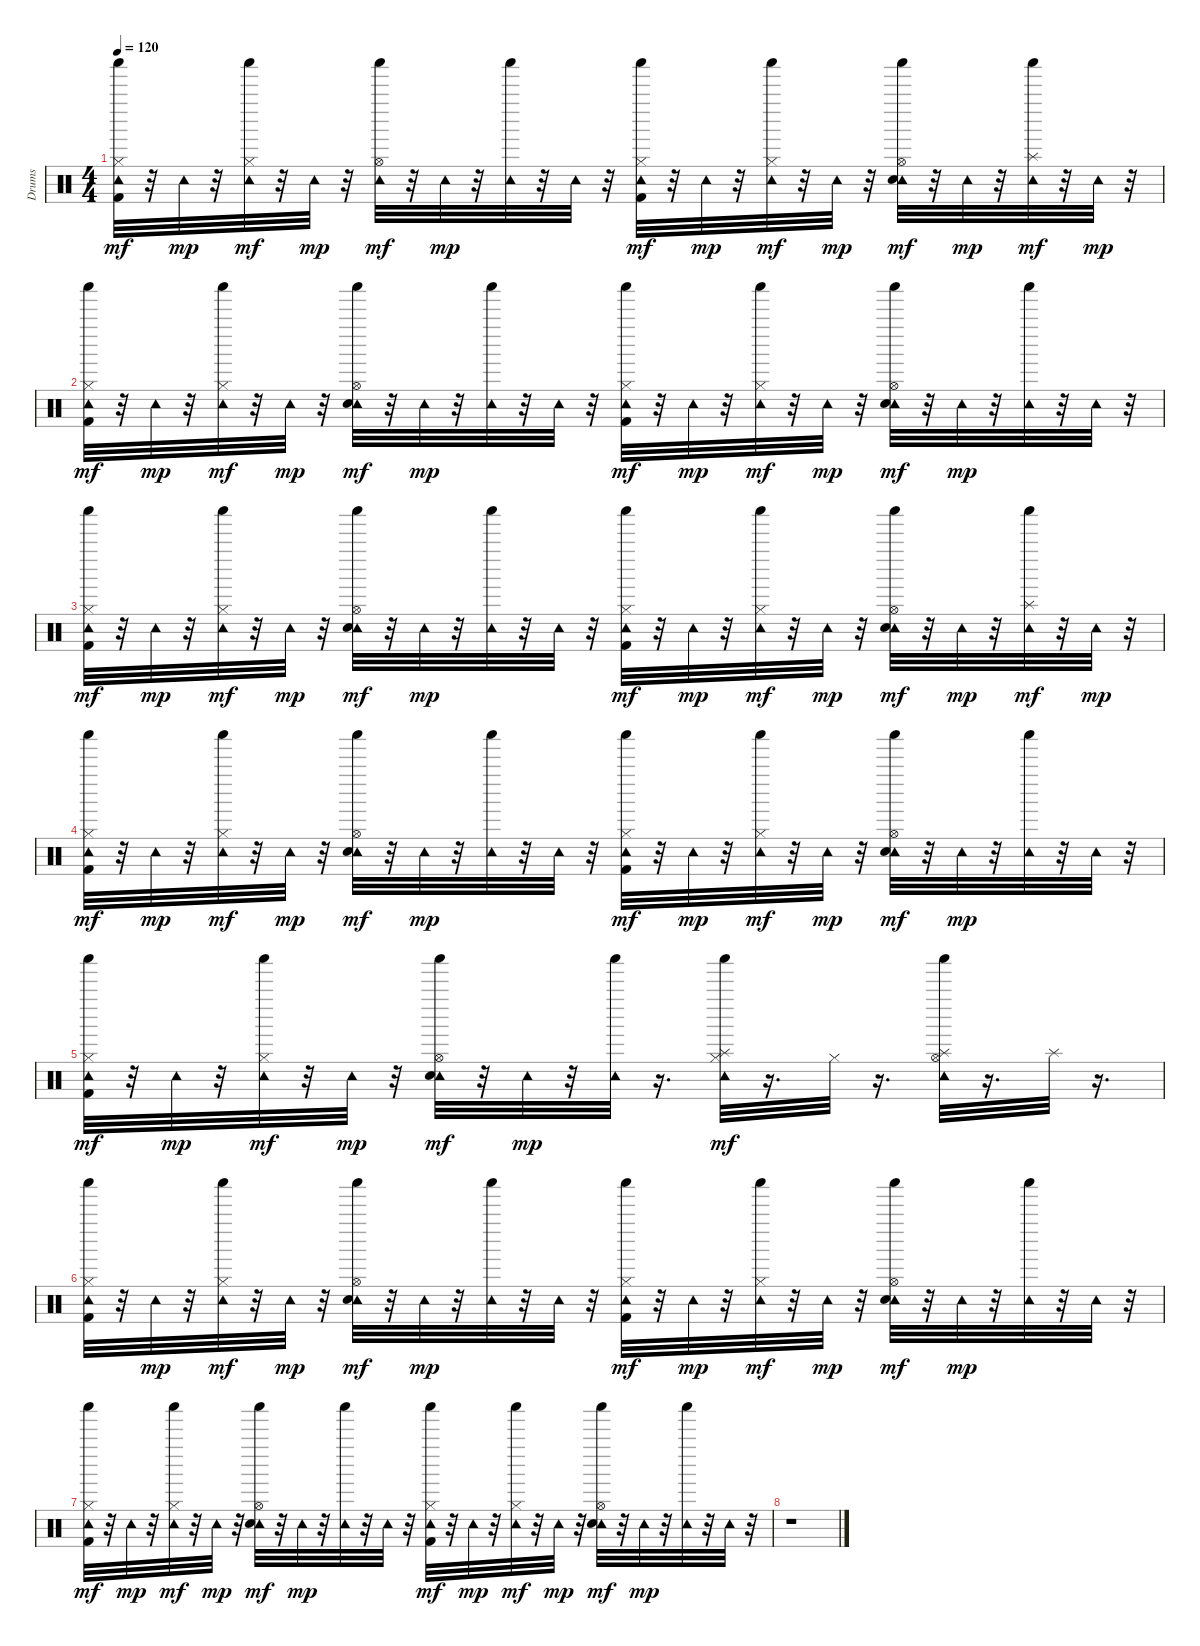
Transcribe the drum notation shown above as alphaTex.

\track ("Drums" "Drums") {instrument percussion}
\staff {score}
\articulation defaults
\ts (4 4)
\tempo 120
\clef neutral
\ks c
("Kick (hit) 2" "Tambourine (hit)" "Shaker (hit)" "Hi-Hat (closed)").32{dy mf} r.32 "Tambourine (hit)".32{dy mp} r.32 ("Tambourine (hit)" "Shaker (hit)" "Hi-Hat (closed)").32{dy mf} r.32 "Tambourine (hit)".32{dy mp} r.32 ("Tambourine (hit)" "Shaker (hit)" "Hi-Hat (open)").32{dy mf} r.32 "Tambourine (hit)".32{dy mp} r.32 ("Tambourine (hit)" "Shaker (hit)").32 r.32 "Tambourine (hit)".32 r.32 ("Kick (hit) 2" "Tambourine (hit)" "Shaker (hit)" "Hi-Hat (closed)").32{dy mf} r.32 "Tambourine (hit)".32{dy mp} r.32 ("Tambourine (hit)" "Shaker (hit)" "Hi-Hat (closed)").32{dy mf} r.32 "Tambourine (hit)".32{dy mp} r.32 ("Tambourine (hit)" "Shaker (hit)" "Snare (hit) 2" "Hi-Hat (open)").32{dy mf} r.32 "Tambourine (hit)".32{dy mp} r.32 ("Tambourine (hit)" "Shaker (hit)" "Splash (hit)").32{dy mf} r.32 "Tambourine (hit)".32{dy mp} r.32 |
("Kick (hit) 2" "Tambourine (hit)" "Shaker (hit)" "Hi-Hat (closed)").32{dy mf} r.32 "Tambourine (hit)".32{dy mp} r.32 ("Tambourine (hit)" "Shaker (hit)" "Hi-Hat (closed)").32{dy mf} r.32 "Tambourine (hit)".32{dy mp} r.32 ("Tambourine (hit)" "Shaker (hit)" "Snare (hit) 2" "Hi-Hat (open)").32{dy mf} r.32 "Tambourine (hit)".32{dy mp} r.32 ("Tambourine (hit)" "Shaker (hit)").32 r.32 "Tambourine (hit)".32 r.32 ("Kick (hit) 2" "Tambourine (hit)" "Shaker (hit)" "Hi-Hat (closed)").32{dy mf} r.32 "Tambourine (hit)".32{dy mp} r.32 ("Tambourine (hit)" "Shaker (hit)" "Hi-Hat (closed)").32{dy mf} r.32 "Tambourine (hit)".32{dy mp} r.32 ("Tambourine (hit)" "Shaker (hit)" "Snare (hit) 2" "Hi-Hat (open)").32{dy mf} r.32 "Tambourine (hit)".32{dy mp} r.32 ("Tambourine (hit)" "Shaker (hit)").32 r.32 "Tambourine (hit)".32 r.32 |
("Kick (hit) 2" "Tambourine (hit)" "Shaker (hit)" "Hi-Hat (closed)").32{dy mf} r.32 "Tambourine (hit)".32{dy mp} r.32 ("Tambourine (hit)" "Shaker (hit)" "Hi-Hat (closed)").32{dy mf} r.32 "Tambourine (hit)".32{dy mp} r.32 ("Tambourine (hit)" "Shaker (hit)" "Snare (hit) 2" "Hi-Hat (open)").32{dy mf} r.32 "Tambourine (hit)".32{dy mp} r.32 ("Tambourine (hit)" "Shaker (hit)").32 r.32 "Tambourine (hit)".32 r.32 ("Kick (hit) 2" "Tambourine (hit)" "Shaker (hit)" "Hi-Hat (closed)").32{dy mf} r.32 "Tambourine (hit)".32{dy mp} r.32 ("Tambourine (hit)" "Shaker (hit)" "Hi-Hat (closed)").32{dy mf} r.32 "Tambourine (hit)".32{dy mp} r.32 ("Tambourine (hit)" "Shaker (hit)" "Snare (hit) 2" "Hi-Hat (open)").32{dy mf} r.32 "Tambourine (hit)".32{dy mp} r.32 ("Tambourine (hit)" "Shaker (hit)" "Splash (hit)").32{dy mf} r.32 "Tambourine (hit)".32{dy mp} r.32 |
("Kick (hit) 2" "Tambourine (hit)" "Shaker (hit)" "Hi-Hat (closed)").32{dy mf} r.32 "Tambourine (hit)".32{dy mp} r.32 ("Tambourine (hit)" "Shaker (hit)" "Hi-Hat (closed)").32{dy mf} r.32 "Tambourine (hit)".32{dy mp} r.32 ("Tambourine (hit)" "Shaker (hit)" "Snare (hit) 2" "Hi-Hat (open)").32{dy mf} r.32 "Tambourine (hit)".32{dy mp} r.32 ("Tambourine (hit)" "Shaker (hit)").32 r.32 "Tambourine (hit)".32 r.32 ("Kick (hit) 2" "Tambourine (hit)" "Shaker (hit)" "Hi-Hat (closed)").32{dy mf} r.32 "Tambourine (hit)".32{dy mp} r.32 ("Tambourine (hit)" "Shaker (hit)" "Hi-Hat (closed)").32{dy mf} r.32 "Tambourine (hit)".32{dy mp} r.32 ("Tambourine (hit)" "Shaker (hit)" "Snare (hit) 2" "Hi-Hat (open)").32{dy mf} r.32 "Tambourine (hit)".32{dy mp} r.32 ("Tambourine (hit)" "Shaker (hit)").32 r.32 "Tambourine (hit)".32 r.32 |
("Kick (hit) 2" "Tambourine (hit)" "Shaker (hit)" "Hi-Hat (closed)").32{dy mf} r.32 "Tambourine (hit)".32{dy mp} r.32 ("Tambourine (hit)" "Shaker (hit)" "Hi-Hat (closed)").32{dy mf} r.32 "Tambourine (hit)".32{dy mp} r.32 ("Tambourine (hit)" "Shaker (hit)" "Snare (hit) 2" "Hi-Hat (open)").32{dy mf} r.32 "Tambourine (hit)".32{dy mp} r.32 ("Tambourine (hit)" "Shaker (hit)").32 r.16{d} ("Tambourine (hit)" "Shaker (hit)" "Splash (hit)" "Hi-Hat (closed)").32{dy mf} r.16{d} "Hi-Hat (closed)".32 r.16{d} ("Tambourine (hit)" "Shaker (hit)" "Splash (hit)" "Hi-Hat (open)").32 r.16{d} "Splash (hit)".32 r.16{d} |
("Kick (hit) 2" "Tambourine (hit)" "Shaker (hit)" "Hi-Hat (closed)").32 r.32 "Tambourine (hit)".32{dy mp} r.32 ("Tambourine (hit)" "Shaker (hit)" "Hi-Hat (closed)").32{dy mf} r.32 "Tambourine (hit)".32{dy mp} r.32 ("Tambourine (hit)" "Shaker (hit)" "Snare (hit) 2" "Hi-Hat (open)").32{dy mf} r.32 "Tambourine (hit)".32{dy mp} r.32 ("Tambourine (hit)" "Shaker (hit)").32 r.32 "Tambourine (hit)".32 r.32 ("Kick (hit) 2" "Tambourine (hit)" "Shaker (hit)" "Hi-Hat (closed)").32{dy mf} r.32 "Tambourine (hit)".32{dy mp} r.32 ("Tambourine (hit)" "Shaker (hit)" "Hi-Hat (closed)").32{dy mf} r.32 "Tambourine (hit)".32{dy mp} r.32 ("Tambourine (hit)" "Shaker (hit)" "Snare (hit) 2" "Hi-Hat (open)").32{dy mf} r.32 "Tambourine (hit)".32{dy mp} r.32 ("Tambourine (hit)" "Shaker (hit)").32 r.32 "Tambourine (hit)".32 r.32 |
("Kick (hit) 2" "Tambourine (hit)" "Shaker (hit)" "Hi-Hat (closed)").32{dy mf} r.32 "Tambourine (hit)".32{dy mp} r.32 ("Tambourine (hit)" "Shaker (hit)" "Hi-Hat (closed)").32{dy mf} r.32 "Tambourine (hit)".32{dy mp} r.32 ("Tambourine (hit)" "Shaker (hit)" "Snare (hit) 2" "Hi-Hat (open)").32{dy mf} r.32 "Tambourine (hit)".32{dy mp} r.32 ("Tambourine (hit)" "Shaker (hit)").32 r.32 "Tambourine (hit)".32 r.32 ("Kick (hit) 2" "Tambourine (hit)" "Shaker (hit)" "Hi-Hat (closed)").32{dy mf} r.32 "Tambourine (hit)".32{dy mp} r.32 ("Tambourine (hit)" "Shaker (hit)" "Hi-Hat (closed)").32{dy mf} r.32 "Tambourine (hit)".32{dy mp} r.32 ("Tambourine (hit)" "Shaker (hit)" "Snare (hit) 2" "Hi-Hat (open)").32{dy mf} r.32 "Tambourine (hit)".32{dy mp} r.32 ("Tambourine (hit)" "Shaker (hit)").32 r.32 "Tambourine (hit)".32 r.32 |
r.1
